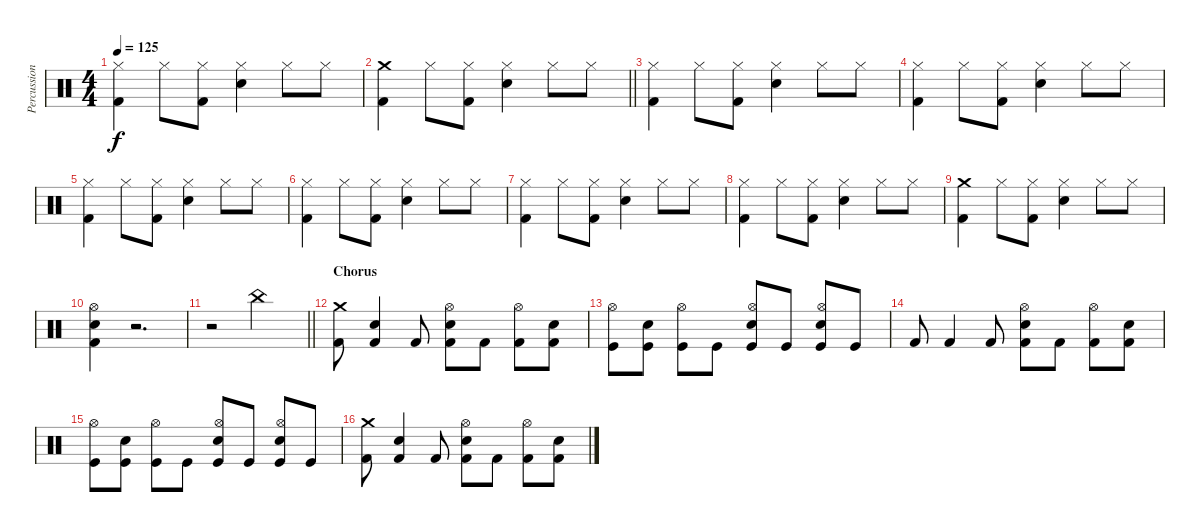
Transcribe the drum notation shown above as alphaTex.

\track ("Percussion" "Percussion") {instrument percussion}
\staff {score}
\articulation defaults
\ts (4 4)
\tempo 125
\clef neutral
\ks c
("Hi-Hat (closed)" "Kick (hit) 2").4{dy f} "Hi-Hat (closed)".8 ("Hi-Hat (closed)" "Kick (hit) 2").8 ("Hi-Hat (closed)" "Snare (hit) 2").4 "Hi-Hat (closed)".8 "Hi-Hat (closed)".8 |
\barLineRight lightlight
("Crash medium (hit)" "Kick (hit) 2").4 "Hi-Hat (closed)".8 ("Hi-Hat (closed)" "Kick (hit) 2").8 ("Hi-Hat (closed)" "Snare (hit) 2").4 "Hi-Hat (closed)".8 "Hi-Hat (closed)".8 |
("Hi-Hat (closed)" "Kick (hit) 2").4 "Hi-Hat (closed)".8 ("Hi-Hat (closed)" "Kick (hit) 2").8 ("Hi-Hat (closed)" "Snare (hit) 2").4 "Hi-Hat (closed)".8 "Hi-Hat (closed)".8 |
("Hi-Hat (closed)" "Kick (hit) 2").4 "Hi-Hat (closed)".8 ("Hi-Hat (closed)" "Kick (hit) 2").8 ("Hi-Hat (closed)" "Snare (hit) 2").4 "Hi-Hat (closed)".8 "Hi-Hat (closed)".8 |
("Hi-Hat (closed)" "Kick (hit) 2").4 "Hi-Hat (closed)".8 ("Hi-Hat (closed)" "Kick (hit) 2").8 ("Hi-Hat (closed)" "Snare (hit) 2").4 "Hi-Hat (closed)".8 "Hi-Hat (closed)".8 |
("Hi-Hat (closed)" "Kick (hit) 2").4 "Hi-Hat (closed)".8 ("Hi-Hat (closed)" "Kick (hit) 2").8 ("Hi-Hat (closed)" "Snare (hit) 2").4 "Hi-Hat (closed)".8 "Hi-Hat (closed)".8 |
("Hi-Hat (closed)" "Kick (hit) 2").4 "Hi-Hat (closed)".8 ("Hi-Hat (closed)" "Kick (hit) 2").8 ("Hi-Hat (closed)" "Snare (hit) 2").4 "Hi-Hat (closed)".8 "Hi-Hat (closed)".8 |
("Hi-Hat (closed)" "Kick (hit) 2").4 "Hi-Hat (closed)".8 ("Hi-Hat (closed)" "Kick (hit) 2").8 ("Hi-Hat (closed)" "Snare (hit) 2").4 "Hi-Hat (closed)".8 "Hi-Hat (closed)".8 |
("Crash medium (hit)" "Kick (hit) 2").4 "Hi-Hat (closed)".8 ("Hi-Hat (closed)" "Kick (hit) 2").8 ("Hi-Hat (closed)" "Snare (hit) 2").4 "Hi-Hat (closed)".8 "Hi-Hat (closed)".8 |
("Hi-Hat (open)" "Snare (hit) 2" "Kick (hit) 2").4 r.2{d} |
\barLineRight lightlight
r.2 "China (hit)".2 |
\section ("" "Chorus")
("Crash medium (hit)" "Kick (hit) 2").8 ("Snare (hit) 2" "Kick (hit) 2").4 "Kick (hit) 2".8 ("Hi-Hat (open)" "Snare (hit) 2" "Kick (hit) 2").8 "Kick (hit) 2".8 ("Hi-Hat (open)" "Kick (hit) 2").8 ("Snare (hit) 2" "Kick (hit) 2").8 |
("Hi-Hat (open)" "Kick (hit)").8 ("Snare (hit) 2" "Kick (hit)").8 ("Hi-Hat (open)" "Kick (hit)").8 "Kick (hit)".8 ("Hi-Hat (open)" "Snare (hit) 2" "Kick (hit)").8 "Kick (hit)".8 ("Hi-Hat (open)" "Snare (hit) 2" "Kick (hit)").8 "Kick (hit)".8 |
"Kick (hit) 2".8 "Kick (hit) 2".4 "Kick (hit) 2".8 ("Hi-Hat (open)" "Snare (hit) 2" "Kick (hit) 2").8 "Kick (hit) 2".8 ("Hi-Hat (open)" "Kick (hit) 2").8 ("Snare (hit) 2" "Kick (hit) 2").8 |
("Hi-Hat (open)" "Kick (hit)").8 ("Snare (hit) 2" "Kick (hit)").8 ("Hi-Hat (open)" "Kick (hit)").8 "Kick (hit)".8 ("Hi-Hat (open)" "Snare (hit) 2" "Kick (hit)").8 "Kick (hit)".8 ("Hi-Hat (open)" "Snare (hit) 2" "Kick (hit)").8 "Kick (hit)".8 |
("Crash medium (hit)" "Kick (hit) 2").8 ("Snare (hit) 2" "Kick (hit) 2").4 "Kick (hit) 2".8 ("Hi-Hat (open)" "Snare (hit) 2" "Kick (hit) 2").8 "Kick (hit) 2".8 ("Hi-Hat (open)" "Kick (hit) 2").8 ("Snare (hit) 2" "Kick (hit) 2").8
